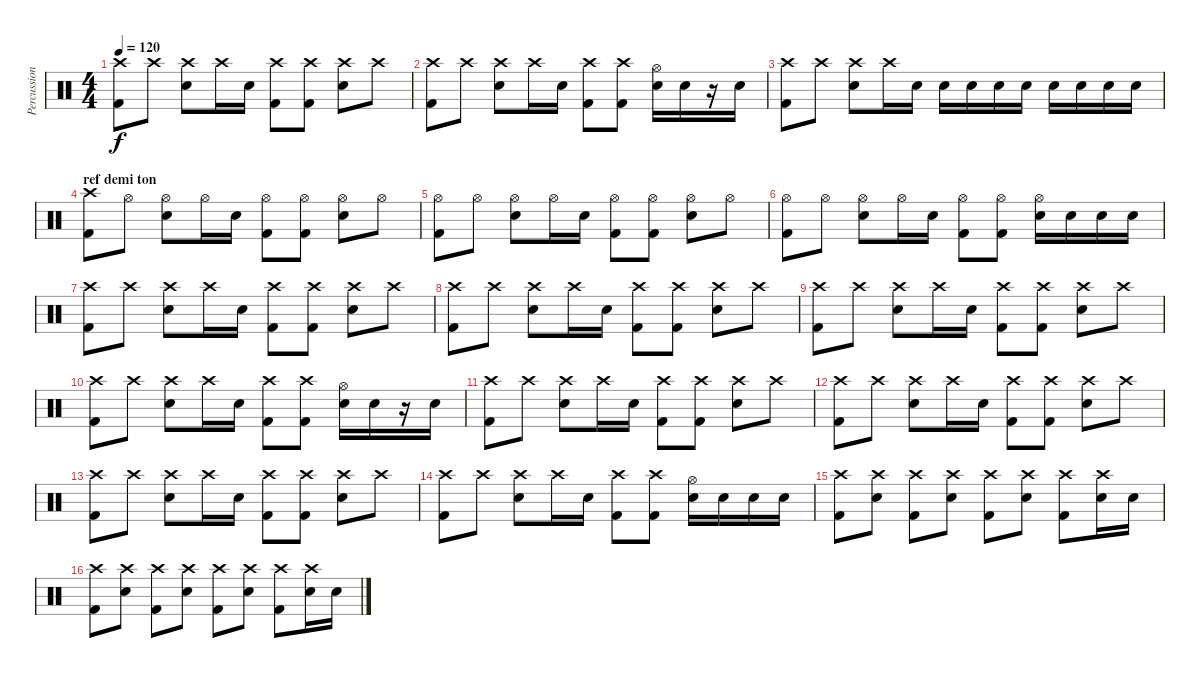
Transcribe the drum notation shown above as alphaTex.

\track ("Percussions" "Percussion") {instrument percussion}
\staff {score}
\articulation defaults
\ts (4 4)
\tempo 120
\clef neutral
\ks c
("Crash high (hit)" "Kick (hit) 2").8{dy f} "Crash high (hit)".8 ("Crash high (hit)" "Snare (hit) 2").8 "Crash high (hit)".16 "Snare (hit) 2".16 ("Crash high (hit)" "Kick (hit) 2").8 ("Crash high (hit)" "Kick (hit) 2").8 ("Crash high (hit)" "Snare (hit) 2").8 "Crash high (hit)".8 |
("Crash high (hit)" "Kick (hit) 2").8 "Crash high (hit)".8 ("Crash high (hit)" "Snare (hit) 2").8 "Crash high (hit)".16 "Snare (hit) 2".16 ("Crash high (hit)" "Kick (hit) 2").8 ("Crash high (hit)" "Kick (hit) 2").8 ("Hi-Hat (open)" "Snare (hit) 2").16 "Snare (hit) 2".16 r.16 "Snare (hit) 2".16 |
("Crash high (hit)" "Kick (hit) 2").8 "Crash high (hit)".8 ("Crash high (hit)" "Snare (hit) 2").8 "Crash high (hit)".16 "Snare (hit) 2".16 "Snare (hit) 2".16 "Snare (hit) 2".16 "Snare (hit) 2".16 "Snare (hit) 2".16 "Snare (hit) 2".16 "Snare (hit) 2".16 "Snare (hit) 2".16 "Snare (hit) 2".16 |
\section ("" "ref demi ton")
("Crash high (hit)" "Kick (hit) 2").8 "Hi-Hat (open)".8 ("Hi-Hat (open)" "Snare (hit) 2").8 "Hi-Hat (open)".16 "Snare (hit) 2".16 ("Hi-Hat (open)" "Kick (hit) 2").8 ("Hi-Hat (open)" "Kick (hit) 2").8 ("Hi-Hat (open)" "Snare (hit) 2").8 "Hi-Hat (open)".8 |
("Hi-Hat (open)" "Kick (hit) 2").8 "Hi-Hat (open)".8 ("Hi-Hat (open)" "Snare (hit) 2").8 "Hi-Hat (open)".16 "Snare (hit) 2".16 ("Hi-Hat (open)" "Kick (hit) 2").8 ("Hi-Hat (open)" "Kick (hit) 2").8 ("Hi-Hat (open)" "Snare (hit) 2").8 "Hi-Hat (open)".8 |
("Hi-Hat (open)" "Kick (hit) 2").8 "Hi-Hat (open)".8 ("Hi-Hat (open)" "Snare (hit) 2").8 "Hi-Hat (open)".16 "Snare (hit) 2".16 ("Hi-Hat (open)" "Kick (hit) 2").8 ("Hi-Hat (open)" "Kick (hit) 2").8 ("Hi-Hat (open)" "Snare (hit) 2").16 "Snare (hit) 2".16 "Snare (hit) 2".16 "Snare (hit) 2".16 |
("Crash high (hit)" "Kick (hit) 2").8 "Crash high (hit)".8 ("Crash high (hit)" "Snare (hit) 2").8 "Crash high (hit)".16 "Snare (hit) 2".16 ("Crash high (hit)" "Kick (hit) 2").8 ("Crash high (hit)" "Kick (hit) 2").8 ("Crash high (hit)" "Snare (hit) 2").8 "Crash high (hit)".8 |
("Crash high (hit)" "Kick (hit) 2").8 "Crash high (hit)".8 ("Crash high (hit)" "Snare (hit) 2").8 "Crash high (hit)".16 "Snare (hit) 2".16 ("Crash high (hit)" "Kick (hit) 2").8 ("Crash high (hit)" "Kick (hit) 2").8 ("Crash high (hit)" "Snare (hit) 2").8 "Crash high (hit)".8 |
("Crash high (hit)" "Kick (hit) 2").8 "Crash high (hit)".8 ("Crash high (hit)" "Snare (hit) 2").8 "Crash high (hit)".16 "Snare (hit) 2".16 ("Crash high (hit)" "Kick (hit) 2").8 ("Crash high (hit)" "Kick (hit) 2").8 ("Crash high (hit)" "Snare (hit) 2").8 "Crash high (hit)".8 |
("Crash high (hit)" "Kick (hit) 2").8 "Crash high (hit)".8 ("Crash high (hit)" "Snare (hit) 2").8 "Crash high (hit)".16 "Snare (hit) 2".16 ("Crash high (hit)" "Kick (hit) 2").8 ("Crash high (hit)" "Kick (hit) 2").8 ("Hi-Hat (open)" "Snare (hit) 2").16 "Snare (hit) 2".16 r.16 "Snare (hit) 2".16 |
("Crash high (hit)" "Kick (hit) 2").8 "Crash high (hit)".8 ("Crash high (hit)" "Snare (hit) 2").8 "Crash high (hit)".16 "Snare (hit) 2".16 ("Crash high (hit)" "Kick (hit) 2").8 ("Crash high (hit)" "Kick (hit) 2").8 ("Crash high (hit)" "Snare (hit) 2").8 "Crash high (hit)".8 |
("Crash high (hit)" "Kick (hit) 2").8 "Crash high (hit)".8 ("Crash high (hit)" "Snare (hit) 2").8 "Crash high (hit)".16 "Snare (hit) 2".16 ("Crash high (hit)" "Kick (hit) 2").8 ("Crash high (hit)" "Kick (hit) 2").8 ("Crash high (hit)" "Snare (hit) 2").8 "Crash high (hit)".8 |
("Crash high (hit)" "Kick (hit) 2").8 "Crash high (hit)".8 ("Crash high (hit)" "Snare (hit) 2").8 "Crash high (hit)".16 "Snare (hit) 2".16 ("Crash high (hit)" "Kick (hit) 2").8 ("Crash high (hit)" "Kick (hit) 2").8 ("Crash high (hit)" "Snare (hit) 2").8 "Crash high (hit)".8 |
("Crash high (hit)" "Kick (hit) 2").8 "Crash high (hit)".8 ("Crash high (hit)" "Snare (hit) 2").8 "Crash high (hit)".16 "Snare (hit) 2".16 ("Crash high (hit)" "Kick (hit) 2").8 ("Crash high (hit)" "Kick (hit) 2").8 ("Hi-Hat (open)" "Snare (hit) 2").16 "Snare (hit) 2".16 "Snare (hit) 2".16 "Snare (hit) 2".16 |
("Crash high (hit)" "Kick (hit) 2").8 ("Crash high (hit)" "Snare (hit) 2").8 ("Crash high (hit)" "Kick (hit) 2").8 ("Crash high (hit)" "Snare (hit) 2").8 ("Crash high (hit)" "Kick (hit) 2").8 ("Crash high (hit)" "Snare (hit) 2").8 ("Crash high (hit)" "Kick (hit) 2").8 ("Crash high (hit)" "Snare (hit) 2").16 "Snare (hit) 2".16 |
("Crash high (hit)" "Kick (hit) 2").8 ("Crash high (hit)" "Snare (hit) 2").8 ("Crash high (hit)" "Kick (hit) 2").8 ("Crash high (hit)" "Snare (hit) 2").8 ("Crash high (hit)" "Kick (hit) 2").8 ("Crash high (hit)" "Snare (hit) 2").8 ("Crash high (hit)" "Kick (hit) 2").8 ("Crash high (hit)" "Snare (hit) 2").16 "Snare (hit) 2".16
